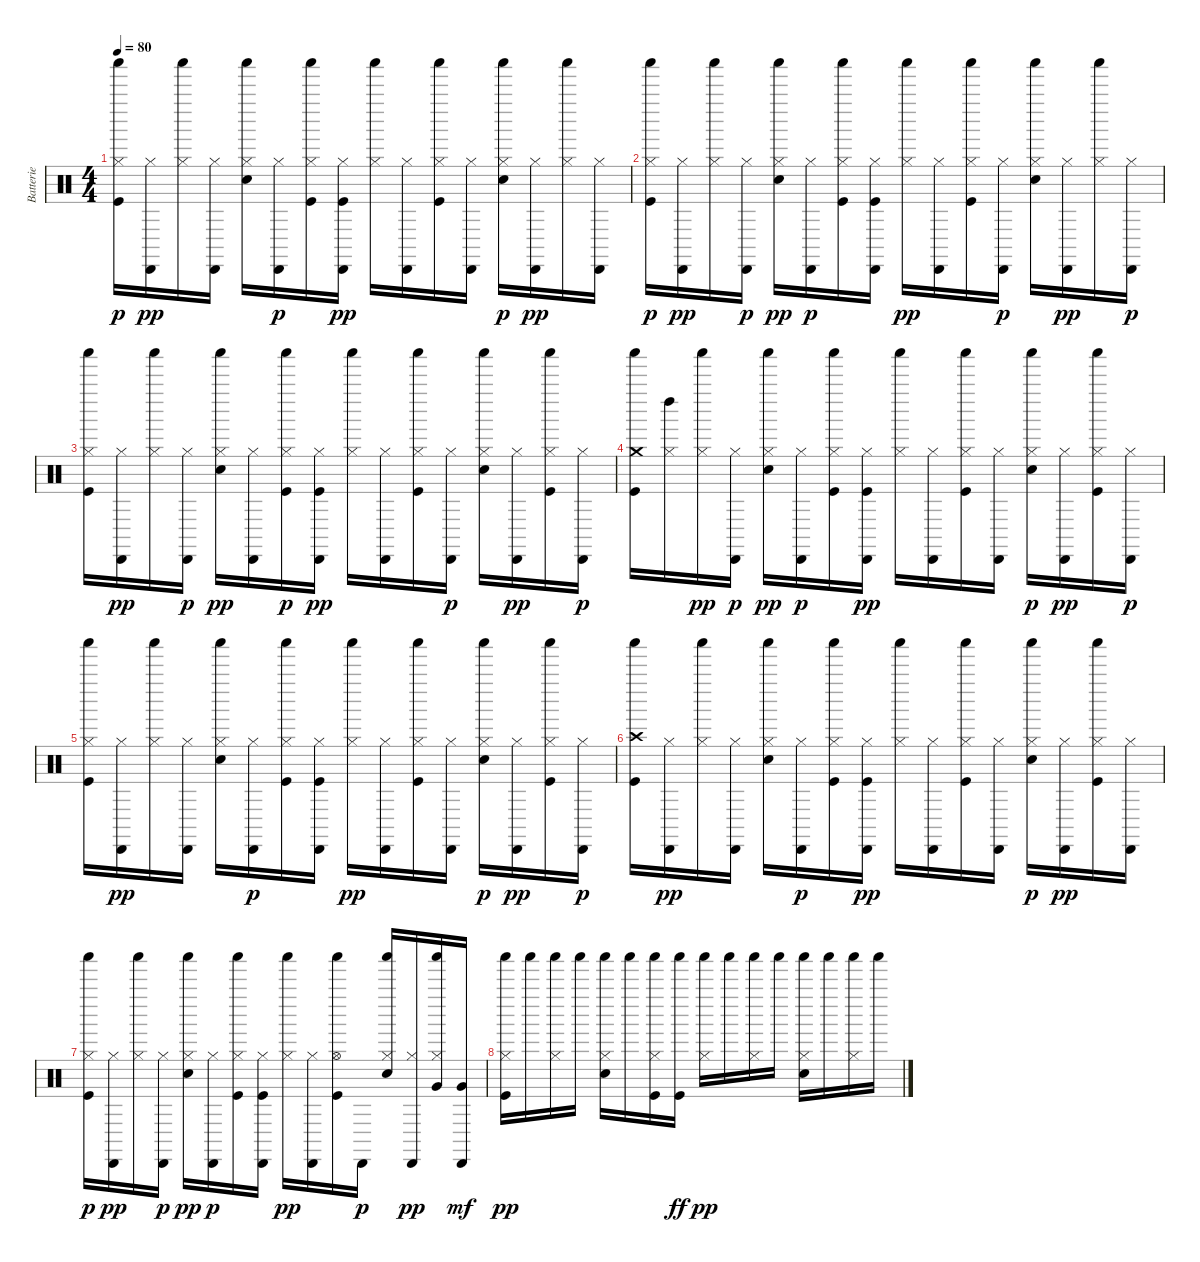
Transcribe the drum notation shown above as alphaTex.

\track ("Batterie" "Batterie") {instrument percussion}
\staff {score}
\articulation defaults
\ts (4 4)
\tempo 80
\clef neutral
\ks c
("Kick (hit)" "Hi-Hat (closed)" "Shaker (hit)").16{dy p} ("Cabasa (hit)" "Hi-Hat (closed)").16{dy pp} ("Hi-Hat (closed)" "Shaker (hit)").16 ("Cabasa (hit)" "Hi-Hat (closed)").16 ("Snare (hit) 2" "Hi-Hat (closed)" "Shaker (hit)").16 ("Cabasa (hit)" "Hi-Hat (closed)").16{dy p} ("Kick (hit)" "Hi-Hat (closed)" "Shaker (hit)").16 ("Cabasa (hit)" "Kick (hit)" "Hi-Hat (closed)").16{dy pp} ("Hi-Hat (closed)" "Shaker (hit)").16 ("Cabasa (hit)" "Hi-Hat (closed)").16 ("Kick (hit)" "Hi-Hat (closed)" "Shaker (hit)").16 ("Cabasa (hit)" "Hi-Hat (closed)").16 ("Snare (hit) 2" "Hi-Hat (closed)" "Shaker (hit)").16{dy p} ("Cabasa (hit)" "Hi-Hat (closed)").16{dy pp} ("Hi-Hat (closed)" "Shaker (hit)").16 ("Cabasa (hit)" "Hi-Hat (closed)").16 |
("Kick (hit)" "Hi-Hat (closed)" "Shaker (hit)").16{dy p} ("Cabasa (hit)" "Hi-Hat (closed)").16{dy pp} ("Hi-Hat (closed)" "Shaker (hit)").16 ("Cabasa (hit)" "Hi-Hat (closed)").16{dy p} ("Snare (hit) 2" "Hi-Hat (closed)" "Shaker (hit)").16{dy pp} ("Cabasa (hit)" "Hi-Hat (closed)").16{dy p} ("Kick (hit)" "Hi-Hat (closed)" "Shaker (hit)").16 ("Cabasa (hit)" "Kick (hit)" "Hi-Hat (closed)").16 ("Hi-Hat (closed)" "Shaker (hit)").16{dy pp} ("Cabasa (hit)" "Hi-Hat (closed)").16 ("Kick (hit)" "Hi-Hat (closed)" "Shaker (hit)").16 ("Cabasa (hit)" "Hi-Hat (closed)").16{dy p} ("Snare (hit) 2" "Hi-Hat (closed)" "Shaker (hit)").16 ("Cabasa (hit)" "Hi-Hat (closed)").16{dy pp} ("Hi-Hat (closed)" "Shaker (hit)").16 ("Cabasa (hit)" "Hi-Hat (closed)").16{dy p} |
("Kick (hit)" "Hi-Hat (closed)" "Shaker (hit)").16 ("Cabasa (hit)" "Hi-Hat (closed)").16{dy pp} ("Hi-Hat (closed)" "Shaker (hit)").16 ("Cabasa (hit)" "Hi-Hat (closed)").16{dy p} ("Snare (hit) 2" "Hi-Hat (closed)" "Shaker (hit)").16{dy pp} ("Cabasa (hit)" "Hi-Hat (closed)").16 ("Kick (hit)" "Hi-Hat (closed)" "Shaker (hit)").16{dy p} ("Cabasa (hit)" "Kick (hit)" "Hi-Hat (closed)").16{dy pp} ("Hi-Hat (closed)" "Shaker (hit)").16 ("Cabasa (hit)" "Hi-Hat (closed)").16 ("Kick (hit)" "Hi-Hat (closed)" "Shaker (hit)").16 ("Cabasa (hit)" "Hi-Hat (closed)").16{dy p} ("Snare (hit) 2" "Hi-Hat (closed)" "Shaker (hit)").16 ("Cabasa (hit)" "Hi-Hat (closed)").16{dy pp} ("Kick (hit)" "Hi-Hat (closed)" "Shaker (hit)").16 ("Cabasa (hit)" "Hi-Hat (closed)").16{dy p} |
("Kick (hit)" "Crash medium (hit)" "Shaker (hit)").16 ("Hi-Hat (closed)" "Left Maraca (hit)").16 ("Hi-Hat (closed)" "Shaker (hit)").16{dy pp} ("Cabasa (hit)" "Hi-Hat (closed)").16{dy p} ("Snare (hit) 2" "Hi-Hat (closed)" "Shaker (hit)").16{dy pp} ("Cabasa (hit)" "Hi-Hat (closed)").16{dy p} ("Kick (hit)" "Hi-Hat (closed)" "Shaker (hit)").16 ("Cabasa (hit)" "Kick (hit)" "Hi-Hat (closed)").16{dy pp} ("Hi-Hat (closed)" "Shaker (hit)").16 ("Cabasa (hit)" "Hi-Hat (closed)").16 ("Kick (hit)" "Hi-Hat (closed)" "Shaker (hit)").16 ("Cabasa (hit)" "Hi-Hat (closed)").16 ("Snare (hit) 2" "Hi-Hat (closed)" "Shaker (hit)").16{dy p} ("Cabasa (hit)" "Hi-Hat (closed)").16{dy pp} ("Kick (hit)" "Hi-Hat (closed)" "Shaker (hit)").16 ("Cabasa (hit)" "Hi-Hat (closed)").16{dy p} |
("Kick (hit)" "Hi-Hat (closed)" "Shaker (hit)").16 ("Cabasa (hit)" "Hi-Hat (closed)").16{dy pp} ("Hi-Hat (closed)" "Shaker (hit)").16 ("Cabasa (hit)" "Hi-Hat (closed)").16 ("Snare (hit) 2" "Hi-Hat (closed)" "Shaker (hit)").16 ("Cabasa (hit)" "Hi-Hat (closed)").16{dy p} ("Kick (hit)" "Hi-Hat (closed)" "Shaker (hit)").16 ("Cabasa (hit)" "Kick (hit)" "Hi-Hat (closed)").16 ("Hi-Hat (closed)" "Shaker (hit)").16{dy pp} ("Cabasa (hit)" "Hi-Hat (closed)").16 ("Kick (hit)" "Hi-Hat (closed)" "Shaker (hit)").16 ("Cabasa (hit)" "Hi-Hat (closed)").16 ("Snare (hit) 2" "Hi-Hat (closed)" "Shaker (hit)").16{dy p} ("Cabasa (hit)" "Hi-Hat (closed)").16{dy pp} ("Kick (hit)" "Hi-Hat (closed)" "Shaker (hit)").16 ("Cabasa (hit)" "Hi-Hat (closed)").16{dy p} |
("Kick (hit)" "Crash high (hit)" "Shaker (hit)").16 ("Cabasa (hit)" "Hi-Hat (closed)").16{dy pp} ("Hi-Hat (closed)" "Shaker (hit)").16 ("Cabasa (hit)" "Hi-Hat (closed)").16 ("Snare (hit) 2" "Hi-Hat (closed)" "Shaker (hit)").16 ("Cabasa (hit)" "Hi-Hat (closed)").16{dy p} ("Kick (hit)" "Hi-Hat (closed)" "Shaker (hit)").16 ("Cabasa (hit)" "Kick (hit)" "Hi-Hat (closed)").16{dy pp} ("Hi-Hat (closed)" "Shaker (hit)").16 ("Cabasa (hit)" "Hi-Hat (closed)").16 ("Kick (hit)" "Hi-Hat (closed)" "Shaker (hit)").16 ("Cabasa (hit)" "Hi-Hat (closed)").16 ("Snare (hit) 2" "Hi-Hat (closed)" "Shaker (hit)").16{dy p} ("Cabasa (hit)" "Hi-Hat (closed)").16{dy pp} ("Kick (hit)" "Hi-Hat (closed)" "Shaker (hit)").16 ("Cabasa (hit)" "Hi-Hat (closed)").16 |
("Kick (hit)" "Hi-Hat (closed)" "Shaker (hit)").16{dy p} ("Cabasa (hit)" "Hi-Hat (closed)").16{dy pp} ("Hi-Hat (closed)" "Shaker (hit)").16 ("Cabasa (hit)" "Hi-Hat (closed)").16{dy p} ("Snare (hit) 2" "Hi-Hat (closed)" "Shaker (hit)").16{dy pp} ("Cabasa (hit)" "Hi-Hat (closed)").16{dy p} ("Kick (hit)" "Hi-Hat (closed)" "Shaker (hit)").16 ("Cabasa (hit)" "Kick (hit)" "Hi-Hat (closed)").16 ("Hi-Hat (closed)" "Shaker (hit)").16{dy pp} ("Cabasa (hit)" "Hi-Hat (closed)").16 ("Kick (hit)" "Hi-Hat (open)" "Shaker (hit)").16 "Cabasa (hit)".16{dy p} ("Snare (hit) 2" "Hi-Hat (closed)" "Shaker (hit)").16 ("Cabasa (hit)" "Hi-Hat (closed)").16{dy pp} ("Hi-Hat (closed)" "Very Low Tom (hit)" "Shaker (hit)").16 ("Cabasa (hit)" "Very Low Tom (hit)").16{dy mf} |
("Kick (hit)" "Hi-Hat (closed)" "Shaker (hit)").16{dy pp} "Shaker (hit)".16 ("Hi-Hat (closed)" "Shaker (hit)").16 "Shaker (hit)".16 ("Snare (hit) 2" "Hi-Hat (closed)" "Shaker (hit)").16 "Shaker (hit)".16 ("Kick (hit)" "Hi-Hat (closed)" "Shaker (hit)").16 ("Shaker (hit)" "Kick (hit)").16{dy ff} ("Hi-Hat (closed)" "Shaker (hit)").16{dy pp} "Shaker (hit)".16 ("Hi-Hat (closed)" "Shaker (hit)").16 "Shaker (hit)".16 ("Snare (hit) 2" "Hi-Hat (closed)" "Shaker (hit)").16 "Shaker (hit)".16 ("Hi-Hat (closed)" "Shaker (hit)").16 "Shaker (hit)".16
